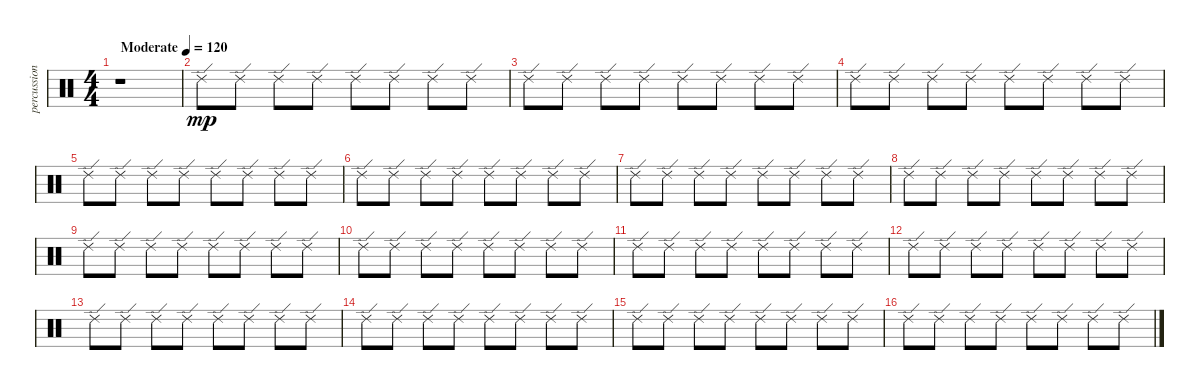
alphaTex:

\track ("percussion" "percussion") {instrument percussion}
\staff {score}
\articulation defaults
\ts (4 4)
\tempo (120 "Moderate")
\clef neutral
\ks c
r.1{dy mp} |
"Ride (edge) 2".8 "Ride (edge) 2".8 "Ride (edge) 2".8 "Ride (edge) 2".8 "Ride (edge) 2".8 "Ride (edge) 2".8 "Ride (edge) 2".8 "Ride (edge) 2".8 |
"Ride (edge) 2".8 "Ride (edge) 2".8 "Ride (edge) 2".8 "Ride (edge) 2".8 "Ride (edge) 2".8 "Ride (edge) 2".8 "Ride (edge) 2".8 "Ride (edge) 2".8 |
"Ride (edge) 2".8 "Ride (edge) 2".8 "Ride (edge) 2".8 "Ride (edge) 2".8 "Ride (edge) 2".8 "Ride (edge) 2".8 "Ride (edge) 2".8 "Ride (edge) 2".8 |
"Ride (edge) 2".8 "Ride (edge) 2".8 "Ride (edge) 2".8 "Ride (edge) 2".8 "Ride (edge) 2".8 "Ride (edge) 2".8 "Ride (edge) 2".8 "Ride (edge) 2".8 |
"Ride (edge) 2".8 "Ride (edge) 2".8 "Ride (edge) 2".8 "Ride (edge) 2".8 "Ride (edge) 2".8 "Ride (edge) 2".8 "Ride (edge) 2".8 "Ride (edge) 2".8 |
"Ride (edge) 2".8 "Ride (edge) 2".8 "Ride (edge) 2".8 "Ride (edge) 2".8 "Ride (edge) 2".8 "Ride (edge) 2".8 "Ride (edge) 2".8 "Ride (edge) 2".8 |
"Ride (edge) 2".8 "Ride (edge) 2".8 "Ride (edge) 2".8 "Ride (edge) 2".8 "Ride (edge) 2".8 "Ride (edge) 2".8 "Ride (edge) 2".8 "Ride (edge) 2".8 |
"Ride (edge) 2".8 "Ride (edge) 2".8 "Ride (edge) 2".8 "Ride (edge) 2".8 "Ride (edge) 2".8 "Ride (edge) 2".8 "Ride (edge) 2".8 "Ride (edge) 2".8 |
"Ride (edge) 2".8 "Ride (edge) 2".8 "Ride (edge) 2".8 "Ride (edge) 2".8 "Ride (edge) 2".8 "Ride (edge) 2".8 "Ride (edge) 2".8 "Ride (edge) 2".8 |
"Ride (edge) 2".8 "Ride (edge) 2".8 "Ride (edge) 2".8 "Ride (edge) 2".8 "Ride (edge) 2".8 "Ride (edge) 2".8 "Ride (edge) 2".8 "Ride (edge) 2".8 |
"Ride (edge) 2".8 "Ride (edge) 2".8 "Ride (edge) 2".8 "Ride (edge) 2".8 "Ride (edge) 2".8 "Ride (edge) 2".8 "Ride (edge) 2".8 "Ride (edge) 2".8 |
"Ride (edge) 2".8 "Ride (edge) 2".8 "Ride (edge) 2".8 "Ride (edge) 2".8 "Ride (edge) 2".8 "Ride (edge) 2".8 "Ride (edge) 2".8 "Ride (edge) 2".8 |
"Ride (edge) 2".8 "Ride (edge) 2".8 "Ride (edge) 2".8 "Ride (edge) 2".8 "Ride (edge) 2".8 "Ride (edge) 2".8 "Ride (edge) 2".8 "Ride (edge) 2".8 |
"Ride (edge) 2".8 "Ride (edge) 2".8 "Ride (edge) 2".8 "Ride (edge) 2".8 "Ride (edge) 2".8 "Ride (edge) 2".8 "Ride (edge) 2".8 "Ride (edge) 2".8 |
"Ride (edge) 2".8 "Ride (edge) 2".8 "Ride (edge) 2".8 "Ride (edge) 2".8 "Ride (edge) 2".8 "Ride (edge) 2".8 "Ride (edge) 2".8 "Ride (edge) 2".8
